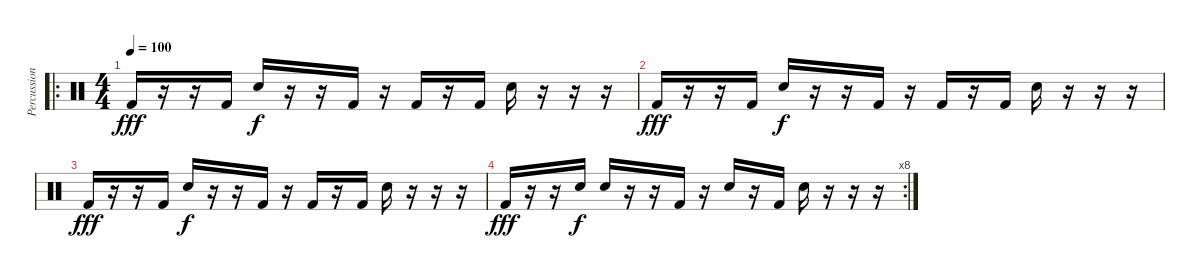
\track ("Percussions" "Percussion") {instrument percussion}
\staff {score}
\articulation defaults
\ro
\ts (4 4)
\tempo 100
\clef neutral
\ks c "Kick (hit) 2".16{dy fff}
r.16 r.16 "Kick (hit) 2".16 "Electric Snare (hit)".16{dy f} r.16 r.16 "Kick (hit) 2".16 r.16 "Kick (hit) 2".16 r.16 "Kick (hit) 2".16 "Electric Snare (hit)".16 r.16 r.16 r.16 |
"Kick (hit) 2".16{dy fff} r.16 r.16 "Kick (hit) 2".16 "Electric Snare (hit)".16{dy f} r.16 r.16 "Kick (hit) 2".16 r.16 "Kick (hit) 2".16 r.16 "Kick (hit) 2".16 "Electric Snare (hit)".16 r.16 r.16 r.16 |
"Kick (hit) 2".16{dy fff} r.16 r.16 "Kick (hit) 2".16 "Electric Snare (hit)".16{dy f} r.16 r.16 "Kick (hit) 2".16 r.16 "Kick (hit) 2".16 r.16 "Kick (hit) 2".16 "Electric Snare (hit)".16 r.16 r.16 r.16 |
\rc 8 "Kick (hit) 2".16{dy fff}
r.16 r.16 "Electric Snare (hit)".16{dy f} "Electric Snare (hit)".16 r.16 r.16 "Kick (hit) 2".16 r.16 "Electric Snare (hit)".16 r.16 "Kick (hit) 2".16 "Electric Snare (hit)".16 r.16 r.16 r.16
